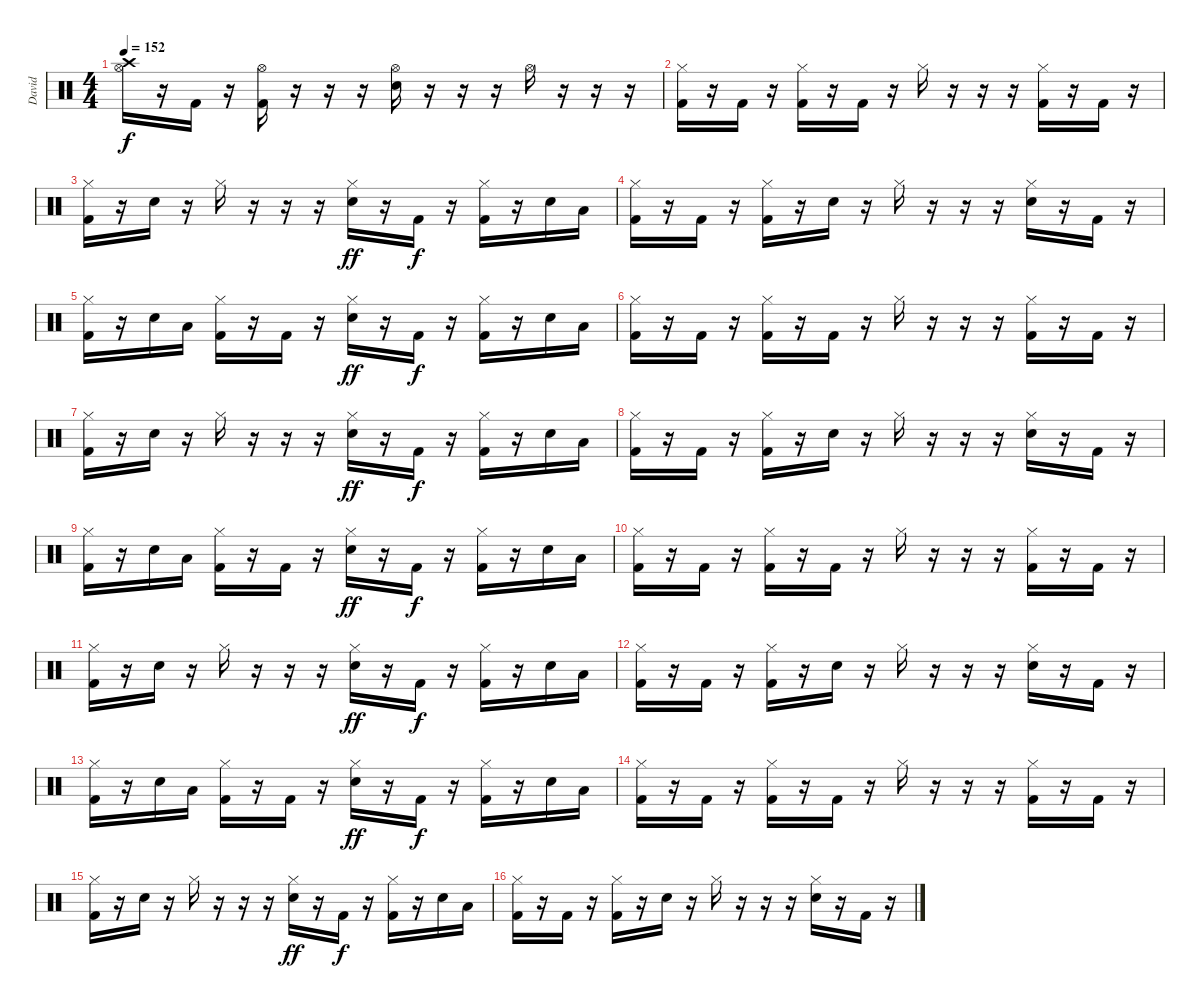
\track ("David" "David") {instrument percussion}
\staff {score}
\articulation defaults
\ts (4 4)
\tempo 152
\clef neutral
\ks c
("Crash high (hit)" "Hi-Hat (open)").16{dy f} r.16 "Kick (hit) 2".16 r.16 ("Hi-Hat (open)" "Kick (hit) 2").16 r.16 r.16 r.16 ("Hi-Hat (open)" "Electric Snare (hit)").16 r.16 r.16 r.16 "Hi-Hat (open)".16 r.16 r.16 r.16 |
("Hi-Hat (closed)" "Kick (hit) 2").16 r.16 "Kick (hit) 2".16 r.16 ("Hi-Hat (closed)" "Kick (hit) 2").16 r.16 "Kick (hit) 2".16 r.16 "Hi-Hat (closed)".16 r.16 r.16 r.16 ("Hi-Hat (closed)" "Kick (hit) 2").16 r.16 "Kick (hit) 2".16 r.16 |
("Hi-Hat (closed)" "Kick (hit) 2").16 r.16 "Electric Snare (hit)".16 r.16 "Hi-Hat (closed)".16 r.16 r.16 r.16 ("Hi-Hat (closed)" "Electric Snare (hit)").16{dy ff} r.16 "Kick (hit) 2".16{dy f} r.16 ("Hi-Hat (closed)" "Kick (hit) 2").16 r.16 "Electric Snare (hit)".16 "Low Tom (hit)".16 |
("Hi-Hat (closed)" "Kick (hit) 2").16 r.16 "Kick (hit) 2".16 r.16 ("Hi-Hat (closed)" "Kick (hit) 2").16 r.16 "Electric Snare (hit)".16 r.16 "Hi-Hat (closed)".16 r.16 r.16 r.16 ("Hi-Hat (closed)" "Electric Snare (hit)").16 r.16 "Kick (hit) 2".16 r.16 |
("Hi-Hat (closed)" "Kick (hit) 2").16 r.16 "Electric Snare (hit)".16 "Low Tom (hit)".16 ("Hi-Hat (closed)" "Kick (hit) 2").16 r.16 "Kick (hit) 2".16 r.16 ("Hi-Hat (closed)" "Electric Snare (hit)").16{dy ff} r.16 "Kick (hit) 2".16{dy f} r.16 ("Hi-Hat (closed)" "Kick (hit) 2").16 r.16 "Electric Snare (hit)".16 "Low Tom (hit)".16 |
("Hi-Hat (closed)" "Kick (hit) 2").16 r.16 "Kick (hit) 2".16 r.16 ("Hi-Hat (closed)" "Kick (hit) 2").16 r.16 "Kick (hit) 2".16 r.16 "Hi-Hat (closed)".16 r.16 r.16 r.16 ("Hi-Hat (closed)" "Kick (hit) 2").16 r.16 "Kick (hit) 2".16 r.16 |
("Hi-Hat (closed)" "Kick (hit) 2").16 r.16 "Electric Snare (hit)".16 r.16 "Hi-Hat (closed)".16 r.16 r.16 r.16 ("Hi-Hat (closed)" "Electric Snare (hit)").16{dy ff} r.16 "Kick (hit) 2".16{dy f} r.16 ("Hi-Hat (closed)" "Kick (hit) 2").16 r.16 "Electric Snare (hit)".16 "Low Tom (hit)".16 |
("Hi-Hat (closed)" "Kick (hit) 2").16 r.16 "Kick (hit) 2".16 r.16 ("Hi-Hat (closed)" "Kick (hit) 2").16 r.16 "Electric Snare (hit)".16 r.16 "Hi-Hat (closed)".16 r.16 r.16 r.16 ("Hi-Hat (closed)" "Electric Snare (hit)").16 r.16 "Kick (hit) 2".16 r.16 |
("Hi-Hat (closed)" "Kick (hit) 2").16 r.16 "Electric Snare (hit)".16 "Low Tom (hit)".16 ("Hi-Hat (closed)" "Kick (hit) 2").16 r.16 "Kick (hit) 2".16 r.16 ("Hi-Hat (closed)" "Electric Snare (hit)").16{dy ff} r.16 "Kick (hit) 2".16{dy f} r.16 ("Hi-Hat (closed)" "Kick (hit) 2").16 r.16 "Electric Snare (hit)".16 "Low Tom (hit)".16 |
("Hi-Hat (closed)" "Kick (hit) 2").16 r.16 "Kick (hit) 2".16 r.16 ("Hi-Hat (closed)" "Kick (hit) 2").16 r.16 "Kick (hit) 2".16 r.16 "Hi-Hat (closed)".16 r.16 r.16 r.16 ("Hi-Hat (closed)" "Kick (hit) 2").16 r.16 "Kick (hit) 2".16 r.16 |
("Hi-Hat (closed)" "Kick (hit) 2").16 r.16 "Electric Snare (hit)".16 r.16 "Hi-Hat (closed)".16 r.16 r.16 r.16 ("Hi-Hat (closed)" "Electric Snare (hit)").16{dy ff} r.16 "Kick (hit) 2".16{dy f} r.16 ("Hi-Hat (closed)" "Kick (hit) 2").16 r.16 "Electric Snare (hit)".16 "Low Tom (hit)".16 |
("Hi-Hat (closed)" "Kick (hit) 2").16 r.16 "Kick (hit) 2".16 r.16 ("Hi-Hat (closed)" "Kick (hit) 2").16 r.16 "Electric Snare (hit)".16 r.16 "Hi-Hat (closed)".16 r.16 r.16 r.16 ("Hi-Hat (closed)" "Electric Snare (hit)").16 r.16 "Kick (hit) 2".16 r.16 |
("Hi-Hat (closed)" "Kick (hit) 2").16 r.16 "Electric Snare (hit)".16 "Low Tom (hit)".16 ("Hi-Hat (closed)" "Kick (hit) 2").16 r.16 "Kick (hit) 2".16 r.16 ("Hi-Hat (closed)" "Electric Snare (hit)").16{dy ff} r.16 "Kick (hit) 2".16{dy f} r.16 ("Hi-Hat (closed)" "Kick (hit) 2").16 r.16 "Electric Snare (hit)".16 "Low Tom (hit)".16 |
("Hi-Hat (closed)" "Kick (hit) 2").16 r.16 "Kick (hit) 2".16 r.16 ("Hi-Hat (closed)" "Kick (hit) 2").16 r.16 "Kick (hit) 2".16 r.16 "Hi-Hat (closed)".16 r.16 r.16 r.16 ("Hi-Hat (closed)" "Kick (hit) 2").16 r.16 "Kick (hit) 2".16 r.16 |
("Hi-Hat (closed)" "Kick (hit) 2").16 r.16 "Electric Snare (hit)".16 r.16 "Hi-Hat (closed)".16 r.16 r.16 r.16 ("Hi-Hat (closed)" "Electric Snare (hit)").16{dy ff} r.16 "Kick (hit) 2".16{dy f} r.16 ("Hi-Hat (closed)" "Kick (hit) 2").16 r.16 "Electric Snare (hit)".16 "Low Tom (hit)".16 |
("Hi-Hat (closed)" "Kick (hit) 2").16 r.16 "Kick (hit) 2".16 r.16 ("Hi-Hat (closed)" "Kick (hit) 2").16 r.16 "Electric Snare (hit)".16 r.16 "Hi-Hat (closed)".16 r.16 r.16 r.16 ("Hi-Hat (closed)" "Electric Snare (hit)").16 r.16 "Kick (hit) 2".16 r.16
